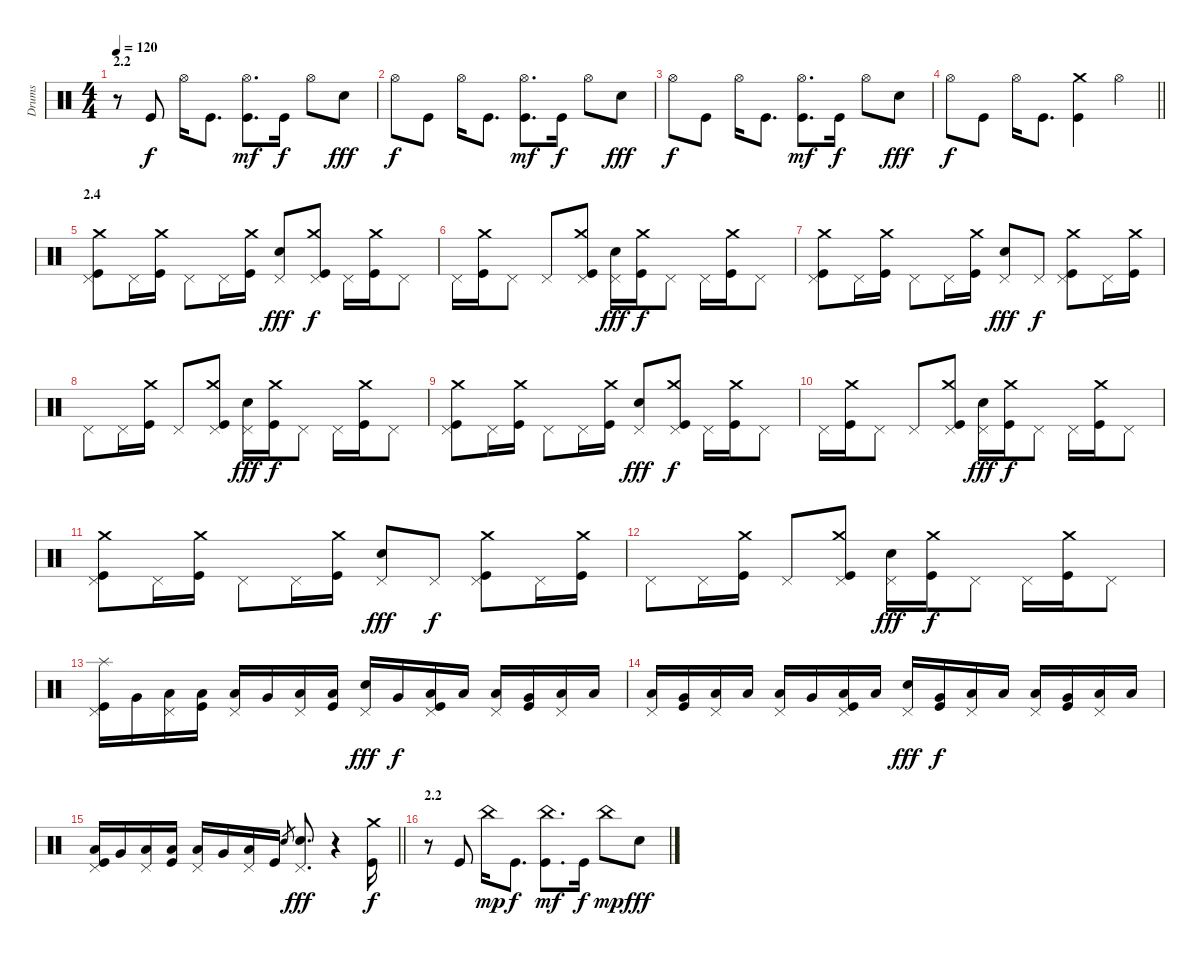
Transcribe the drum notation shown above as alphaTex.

\track ("Drums" "Drums") {instrument percussion}
\staff {score}
\articulation defaults
\ts (4 4)
\section ("" "2.2")
\tempo 120
\clef neutral
\ks c
r.8{dy f} "Kick (hit)".8 "Hi-Hat (open)".16 "Kick (hit)".8{d} ("Hi-Hat (open)" "Kick (hit)").8{d dy mf} "Kick (hit)".16{dy f} "Hi-Hat (open)".8 "Snare (hit) 2".8{dy fff} |
"Hi-Hat (open)".8{dy f} "Kick (hit)".8 "Hi-Hat (open)".16 "Kick (hit)".8{d} ("Hi-Hat (open)" "Kick (hit)").8{d dy mf} "Kick (hit)".16{dy f} "Hi-Hat (open)".8 "Snare (hit) 2".8{dy fff} |
"Hi-Hat (open)".8{dy f} "Kick (hit)".8 "Hi-Hat (open)".16 "Kick (hit)".8{d} ("Hi-Hat (open)" "Kick (hit)").8{d dy mf} "Kick (hit)".16{dy f} "Hi-Hat (open)".8 "Snare (hit) 2".8{dy fff} |
\barLineRight lightlight "Hi-Hat (open)".8{dy f} "Kick (hit)".8 "Hi-Hat (open)".16 "Kick (hit)".8{d}
("Crash medium (hit)" "Kick (hit)").4 "Hi-Hat (open)".4 |
\section ("" "2.4")
("Crash medium (hit)" "Pedal Hi-Hat (hit)" "Kick (hit)").8 "Pedal Hi-Hat (hit)".16 ("Crash medium (hit)" "Kick (hit)").16 "Pedal Hi-Hat (hit)".8 "Pedal Hi-Hat (hit)".16 ("Crash medium (hit)" "Kick (hit)").16 ("Pedal Hi-Hat (hit)" "Snare (hit) 2").8{dy fff} ("Crash medium (hit)" "Pedal Hi-Hat (hit)" "Kick (hit)").8{dy f} "Pedal Hi-Hat (hit)".16 ("Crash medium (hit)" "Kick (hit)").16 "Pedal Hi-Hat (hit)".8 |
"Pedal Hi-Hat (hit)".16 ("Crash medium (hit)" "Kick (hit)").16 "Pedal Hi-Hat (hit)".8 "Pedal Hi-Hat (hit)".8 ("Crash medium (hit)" "Pedal Hi-Hat (hit)" "Kick (hit)").8 ("Pedal Hi-Hat (hit)" "Snare (hit) 2").16{dy fff} ("Crash medium (hit)" "Kick (hit)").16{dy f} "Pedal Hi-Hat (hit)".8 "Pedal Hi-Hat (hit)".16 ("Crash medium (hit)" "Kick (hit)").16 "Pedal Hi-Hat (hit)".8 |
("Crash medium (hit)" "Pedal Hi-Hat (hit)" "Kick (hit)").8 "Pedal Hi-Hat (hit)".16 ("Crash medium (hit)" "Kick (hit)").16 "Pedal Hi-Hat (hit)".8 "Pedal Hi-Hat (hit)".16 ("Crash medium (hit)" "Kick (hit)").16 ("Pedal Hi-Hat (hit)" "Snare (hit) 2").8{dy fff} "Pedal Hi-Hat (hit)".8{dy f} ("Crash medium (hit)" "Pedal Hi-Hat (hit)" "Kick (hit)").8 "Pedal Hi-Hat (hit)".16 ("Crash medium (hit)" "Kick (hit)").16 |
"Pedal Hi-Hat (hit)".8 "Pedal Hi-Hat (hit)".16 ("Crash medium (hit)" "Kick (hit)").16 "Pedal Hi-Hat (hit)".8 ("Crash medium (hit)" "Pedal Hi-Hat (hit)" "Kick (hit)").8 ("Pedal Hi-Hat (hit)" "Snare (hit) 2").16{dy fff} ("Crash medium (hit)" "Kick (hit)").16{dy f} "Pedal Hi-Hat (hit)".8 "Pedal Hi-Hat (hit)".16 ("Crash medium (hit)" "Kick (hit)").16 "Pedal Hi-Hat (hit)".8 |
("Crash medium (hit)" "Pedal Hi-Hat (hit)" "Kick (hit)").8 "Pedal Hi-Hat (hit)".16 ("Crash medium (hit)" "Kick (hit)").16 "Pedal Hi-Hat (hit)".8 "Pedal Hi-Hat (hit)".16 ("Crash medium (hit)" "Kick (hit)").16 ("Pedal Hi-Hat (hit)" "Snare (hit) 2").8{dy fff} ("Crash medium (hit)" "Pedal Hi-Hat (hit)" "Kick (hit)").8{dy f} "Pedal Hi-Hat (hit)".16 ("Crash medium (hit)" "Kick (hit)").16 "Pedal Hi-Hat (hit)".8 |
"Pedal Hi-Hat (hit)".16 ("Crash medium (hit)" "Kick (hit)").16 "Pedal Hi-Hat (hit)".8 "Pedal Hi-Hat (hit)".8 ("Crash medium (hit)" "Pedal Hi-Hat (hit)" "Kick (hit)").8 ("Pedal Hi-Hat (hit)" "Snare (hit) 2").16{dy fff} ("Crash medium (hit)" "Kick (hit)").16{dy f} "Pedal Hi-Hat (hit)".8 "Pedal Hi-Hat (hit)".16 ("Crash medium (hit)" "Kick (hit)").16 "Pedal Hi-Hat (hit)".8 |
("Crash medium (hit)" "Pedal Hi-Hat (hit)" "Kick (hit)").8 "Pedal Hi-Hat (hit)".16 ("Crash medium (hit)" "Kick (hit)").16 "Pedal Hi-Hat (hit)".8 "Pedal Hi-Hat (hit)".16 ("Crash medium (hit)" "Kick (hit)").16 ("Pedal Hi-Hat (hit)" "Snare (hit) 2").8{dy fff} "Pedal Hi-Hat (hit)".8{dy f} ("Crash medium (hit)" "Pedal Hi-Hat (hit)" "Kick (hit)").8 "Pedal Hi-Hat (hit)".16 ("Crash medium (hit)" "Kick (hit)").16 |
"Pedal Hi-Hat (hit)".8 "Pedal Hi-Hat (hit)".16 ("Crash medium (hit)" "Kick (hit)").16 "Pedal Hi-Hat (hit)".8 ("Crash medium (hit)" "Pedal Hi-Hat (hit)" "Kick (hit)").8 ("Pedal Hi-Hat (hit)" "Snare (hit) 2").16{dy fff} ("Crash medium (hit)" "Kick (hit)").16{dy f} "Pedal Hi-Hat (hit)".8 "Pedal Hi-Hat (hit)".16 ("Crash medium (hit)" "Kick (hit)").16 "Pedal Hi-Hat (hit)".8 |
("Splash (hit)" "Pedal Hi-Hat (hit)" "Kick (hit)").16 "Very Low Tom (hit)".16 ("Pedal Hi-Hat (hit)" "Low Floor Tom (hit)").16 ("Low Tom (hit)" "Kick (hit)").16 ("Pedal Hi-Hat (hit)" "Low Tom (hit)").16 "Very Low Tom (hit)".16 ("Pedal Hi-Hat (hit)" "Low Floor Tom (hit)").16 ("Low Tom (hit)" "Kick (hit)").16 ("Pedal Hi-Hat (hit)" "Snare (hit) 2").16{dy fff} "Very Low Tom (hit)".16{dy f} ("Pedal Hi-Hat (hit)" "Low Floor Tom (hit)" "Kick (hit)").16 "Low Tom (hit)".16 ("Pedal Hi-Hat (hit)" "Low Tom (hit)").16 ("Very Low Tom (hit)" "Kick (hit)").16 ("Pedal Hi-Hat (hit)" "Low Floor Tom (hit)").16 "Low Tom (hit)".16 |
("Pedal Hi-Hat (hit)" "Low Tom (hit)").16 ("Very Low Tom (hit)" "Kick (hit)").16 ("Pedal Hi-Hat (hit)" "Low Floor Tom (hit)").16 "Low Tom (hit)".16 ("Pedal Hi-Hat (hit)" "Low Tom (hit)").16 "Very Low Tom (hit)".16 ("Pedal Hi-Hat (hit)" "Low Floor Tom (hit)" "Kick (hit)").16 "Low Tom (hit)".16 ("Pedal Hi-Hat (hit)" "Snare (hit) 2").16{dy fff} ("Very Low Tom (hit)" "Kick (hit)").16{dy f} ("Pedal Hi-Hat (hit)" "Low Floor Tom (hit)").16 "Low Tom (hit)".16 ("Pedal Hi-Hat (hit)" "Low Tom (hit)").16 ("Very Low Tom (hit)" "Kick (hit)").16 ("Pedal Hi-Hat (hit)" "Low Floor Tom (hit)").16 "Low Tom (hit)".16 |
\barLineRight lightlight
("Pedal Hi-Hat (hit)" "Low Tom (hit)" "Kick (hit)").16 "Very Low Tom (hit)".16 ("Pedal Hi-Hat (hit)" "Low Floor Tom (hit)").16 ("Low Tom (hit)" "Kick (hit)").16 ("Pedal Hi-Hat (hit)" "Low Tom (hit)").16 "Very Low Tom (hit)".16 ("Pedal Hi-Hat (hit)" "Low Floor Tom (hit)").16 "Kick (hit)".16 "Snare (hit) 2".8{gr} ("Pedal Hi-Hat (hit)" "Snare (hit) 2").8{d dy fff} r.4 ("Crash medium (hit)" "Kick (hit)").16{dy f} |
\section ("" "2.2")
r.8 "Kick (hit)".8 "China (hit)".16{dy mp} "Kick (hit)".8{d dy f} ("China (hit)" "Kick (hit)").8{d dy mf} "Kick (hit)".16{dy f} "China (hit)".8{dy mp} "Snare (hit) 2".8{dy fff}
